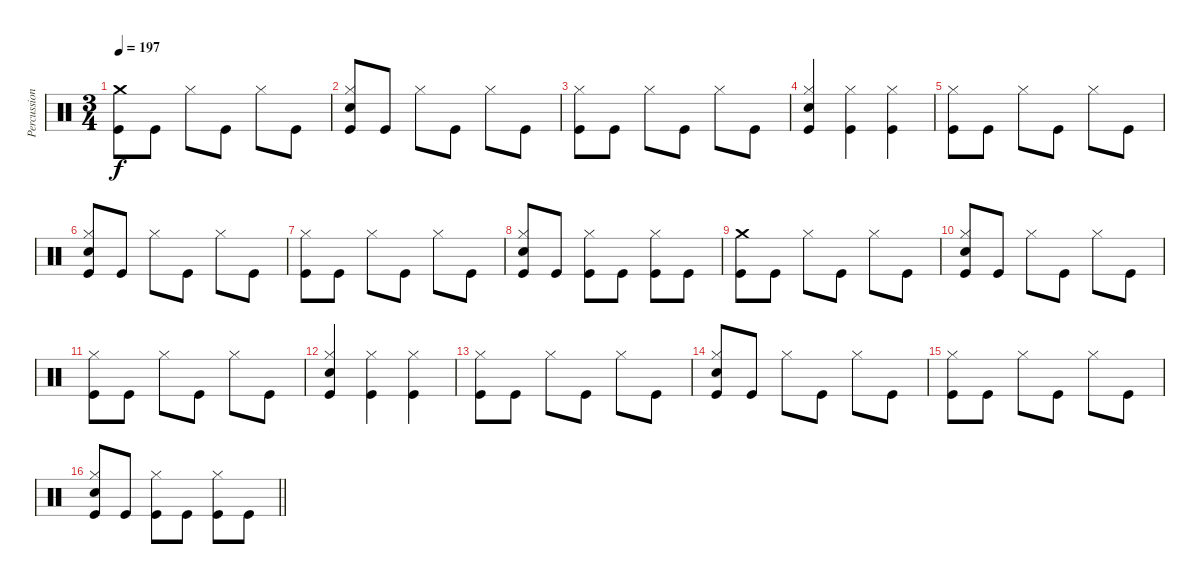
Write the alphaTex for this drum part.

\track ("Percussion" "Percussion") {instrument percussion}
\staff {score}
\articulation defaults
\ts (3 4)
\tempo 197
\clef neutral
\ks c
("Crash medium (hit)" "Kick (hit)").8{dy f} "Kick (hit)".8 "Hi-Hat (closed)".8 "Kick (hit)".8 "Hi-Hat (closed)".8 "Kick (hit)".8 |
("Hi-Hat (closed)" "Electric Snare (hit)" "Kick (hit)").8 "Kick (hit)".8 "Hi-Hat (closed)".8 "Kick (hit)".8 "Hi-Hat (closed)".8 "Kick (hit)".8 |
("Hi-Hat (closed)" "Kick (hit)").8 "Kick (hit)".8 "Hi-Hat (closed)".8 "Kick (hit)".8 "Hi-Hat (closed)".8 "Kick (hit)".8 |
("Hi-Hat (closed)" "Electric Snare (hit)" "Kick (hit)").4 ("Hi-Hat (closed)" "Kick (hit)").4 ("Hi-Hat (closed)" "Kick (hit)").4 |
("Hi-Hat (closed)" "Kick (hit)").8 "Kick (hit)".8 "Hi-Hat (closed)".8 "Kick (hit)".8 "Hi-Hat (closed)".8 "Kick (hit)".8 |
("Hi-Hat (closed)" "Electric Snare (hit)" "Kick (hit)").8 "Kick (hit)".8 "Hi-Hat (closed)".8 "Kick (hit)".8 "Hi-Hat (closed)".8 "Kick (hit)".8 |
("Hi-Hat (closed)" "Kick (hit)").8 "Kick (hit)".8 "Hi-Hat (closed)".8 "Kick (hit)".8 "Hi-Hat (closed)".8 "Kick (hit)".8 |
("Hi-Hat (closed)" "Electric Snare (hit)" "Kick (hit)").8 "Kick (hit)".8 ("Hi-Hat (closed)" "Kick (hit)").8 "Kick (hit)".8 ("Hi-Hat (closed)" "Kick (hit)").8 "Kick (hit)".8 |
("Crash medium (hit)" "Kick (hit)").8 "Kick (hit)".8 "Hi-Hat (closed)".8 "Kick (hit)".8 "Hi-Hat (closed)".8 "Kick (hit)".8 |
("Hi-Hat (closed)" "Electric Snare (hit)" "Kick (hit)").8 "Kick (hit)".8 "Hi-Hat (closed)".8 "Kick (hit)".8 "Hi-Hat (closed)".8 "Kick (hit)".8 |
("Hi-Hat (closed)" "Kick (hit)").8 "Kick (hit)".8 "Hi-Hat (closed)".8 "Kick (hit)".8 "Hi-Hat (closed)".8 "Kick (hit)".8 |
("Hi-Hat (closed)" "Electric Snare (hit)" "Kick (hit)").4 ("Hi-Hat (closed)" "Kick (hit)").4 ("Hi-Hat (closed)" "Kick (hit)").4 |
("Hi-Hat (closed)" "Kick (hit)").8 "Kick (hit)".8 "Hi-Hat (closed)".8 "Kick (hit)".8 "Hi-Hat (closed)".8 "Kick (hit)".8 |
("Hi-Hat (closed)" "Electric Snare (hit)" "Kick (hit)").8 "Kick (hit)".8 "Hi-Hat (closed)".8 "Kick (hit)".8 "Hi-Hat (closed)".8 "Kick (hit)".8 |
("Hi-Hat (closed)" "Kick (hit)").8 "Kick (hit)".8 "Hi-Hat (closed)".8 "Kick (hit)".8 "Hi-Hat (closed)".8 "Kick (hit)".8 |
\barLineRight lightlight
("Hi-Hat (closed)" "Electric Snare (hit)" "Kick (hit)").8 "Kick (hit)".8 ("Hi-Hat (closed)" "Kick (hit)").8 "Kick (hit)".8 ("Hi-Hat (closed)" "Kick (hit)").8 "Kick (hit)".8
